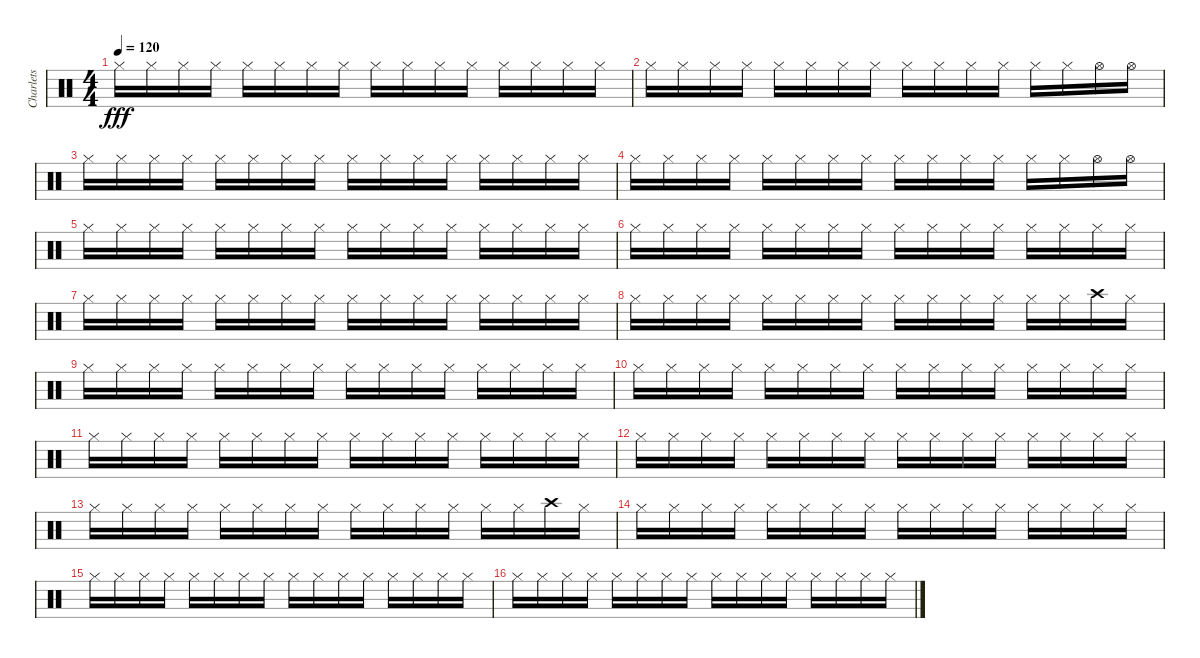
\track ("Charlets" "Charlets") {instrument percussion}
\staff {score}
\articulation defaults
\ts (4 4)
\tempo 120
\clef neutral
\ks c "Hi-Hat (closed)".16{dy fff} "Hi-Hat (closed)".16 "Hi-Hat (closed)".16 "Hi-Hat (closed)".16 "Hi-Hat (closed)".16 "Hi-Hat (closed)".16 "Hi-Hat (closed)".16 "Hi-Hat (closed)".16 "Hi-Hat (closed)".16 "Hi-Hat (closed)".16 "Hi-Hat (closed)".16 "Hi-Hat (closed)".16 "Hi-Hat (closed)".16 "Hi-Hat (closed)".16 "Hi-Hat (closed)".16 "Hi-Hat (closed)".16
|
"Hi-Hat (closed)".16 "Hi-Hat (closed)".16 "Hi-Hat (closed)".16 "Hi-Hat (closed)".16 "Hi-Hat (closed)".16 "Hi-Hat (closed)".16 "Hi-Hat (closed)".16 "Hi-Hat (closed)".16 "Hi-Hat (closed)".16 "Hi-Hat (closed)".16 "Hi-Hat (closed)".16 "Hi-Hat (closed)".16 "Hi-Hat (closed)".16 "Hi-Hat (closed)".16 "Hi-Hat (open)".16 "Hi-Hat (open)".16 |
"Hi-Hat (closed)".16 "Hi-Hat (closed)".16 "Hi-Hat (closed)".16 "Hi-Hat (closed)".16 "Hi-Hat (closed)".16 "Hi-Hat (closed)".16 "Hi-Hat (closed)".16 "Hi-Hat (closed)".16 "Hi-Hat (closed)".16 "Hi-Hat (closed)".16 "Hi-Hat (closed)".16 "Hi-Hat (closed)".16 "Hi-Hat (closed)".16 "Hi-Hat (closed)".16 "Hi-Hat (closed)".16 "Hi-Hat (closed)".16 |
"Hi-Hat (closed)".16 "Hi-Hat (closed)".16 "Hi-Hat (closed)".16 "Hi-Hat (closed)".16 "Hi-Hat (closed)".16 "Hi-Hat (closed)".16 "Hi-Hat (closed)".16 "Hi-Hat (closed)".16 "Hi-Hat (closed)".16 "Hi-Hat (closed)".16 "Hi-Hat (closed)".16 "Hi-Hat (closed)".16 "Hi-Hat (closed)".16 "Hi-Hat (closed)".16 "Hi-Hat (open)".16 "Hi-Hat (open)".16 |
"Hi-Hat (closed)".16 "Hi-Hat (closed)".16 "Hi-Hat (closed)".16 "Hi-Hat (closed)".16 "Hi-Hat (closed)".16 "Hi-Hat (closed)".16 "Hi-Hat (closed)".16 "Hi-Hat (closed)".16 "Hi-Hat (closed)".16 "Hi-Hat (closed)".16 "Hi-Hat (closed)".16 "Hi-Hat (closed)".16 "Hi-Hat (closed)".16 "Hi-Hat (closed)".16 "Hi-Hat (closed)".16 "Hi-Hat (closed)".16 |
"Hi-Hat (closed)".16 "Hi-Hat (closed)".16 "Hi-Hat (closed)".16 "Hi-Hat (closed)".16 "Hi-Hat (closed)".16 "Hi-Hat (closed)".16 "Hi-Hat (closed)".16 "Hi-Hat (closed)".16 "Hi-Hat (closed)".16 "Hi-Hat (closed)".16 "Hi-Hat (closed)".16 "Hi-Hat (closed)".16 "Hi-Hat (closed)".16 "Hi-Hat (closed)".16 "Hi-Hat (closed)".16 "Hi-Hat (closed)".16 |
"Hi-Hat (closed)".16 "Hi-Hat (closed)".16 "Hi-Hat (closed)".16 "Hi-Hat (closed)".16 "Hi-Hat (closed)".16 "Hi-Hat (closed)".16 "Hi-Hat (closed)".16 "Hi-Hat (closed)".16 "Hi-Hat (closed)".16 "Hi-Hat (closed)".16 "Hi-Hat (closed)".16 "Hi-Hat (closed)".16 "Hi-Hat (closed)".16 "Hi-Hat (closed)".16 "Hi-Hat (closed)".16 "Hi-Hat (closed)".16 |
"Hi-Hat (closed)".16 "Hi-Hat (closed)".16 "Hi-Hat (closed)".16 "Hi-Hat (closed)".16 "Hi-Hat (closed)".16 "Hi-Hat (closed)".16 "Hi-Hat (closed)".16 "Hi-Hat (closed)".16 "Hi-Hat (closed)".16 "Hi-Hat (closed)".16 "Hi-Hat (closed)".16 "Hi-Hat (closed)".16 "Hi-Hat (closed)".16 "Hi-Hat (closed)".16 "Crash high (hit)".16 "Hi-Hat (closed)".16 |
"Hi-Hat (closed)".16 "Hi-Hat (closed)".16 "Hi-Hat (closed)".16 "Hi-Hat (closed)".16 "Hi-Hat (closed)".16 "Hi-Hat (closed)".16 "Hi-Hat (closed)".16 "Hi-Hat (closed)".16 "Hi-Hat (closed)".16 "Hi-Hat (closed)".16 "Hi-Hat (closed)".16 "Hi-Hat (closed)".16 "Hi-Hat (closed)".16 "Hi-Hat (closed)".16 "Hi-Hat (closed)".16 "Hi-Hat (closed)".16 |
"Hi-Hat (closed)".16 "Hi-Hat (closed)".16 "Hi-Hat (closed)".16 "Hi-Hat (closed)".16 "Hi-Hat (closed)".16 "Hi-Hat (closed)".16 "Hi-Hat (closed)".16 "Hi-Hat (closed)".16 "Hi-Hat (closed)".16 "Hi-Hat (closed)".16 "Hi-Hat (closed)".16 "Hi-Hat (closed)".16 "Hi-Hat (closed)".16 "Hi-Hat (closed)".16 "Hi-Hat (closed)".16 "Hi-Hat (closed)".16 |
"Hi-Hat (closed)".16 "Hi-Hat (closed)".16 "Hi-Hat (closed)".16 "Hi-Hat (closed)".16 "Hi-Hat (closed)".16 "Hi-Hat (closed)".16 "Hi-Hat (closed)".16 "Hi-Hat (closed)".16 "Hi-Hat (closed)".16 "Hi-Hat (closed)".16 "Hi-Hat (closed)".16 "Hi-Hat (closed)".16 "Hi-Hat (closed)".16 "Hi-Hat (closed)".16 "Hi-Hat (closed)".16 "Hi-Hat (closed)".16 |
"Hi-Hat (closed)".16 "Hi-Hat (closed)".16 "Hi-Hat (closed)".16 "Hi-Hat (closed)".16 "Hi-Hat (closed)".16 "Hi-Hat (closed)".16 "Hi-Hat (closed)".16 "Hi-Hat (closed)".16 "Hi-Hat (closed)".16 "Hi-Hat (closed)".16 "Hi-Hat (closed)".16 "Hi-Hat (closed)".16 "Hi-Hat (closed)".16 "Hi-Hat (closed)".16 "Hi-Hat (closed)".16 "Hi-Hat (closed)".16 |
"Hi-Hat (closed)".16 "Hi-Hat (closed)".16 "Hi-Hat (closed)".16 "Hi-Hat (closed)".16 "Hi-Hat (closed)".16 "Hi-Hat (closed)".16 "Hi-Hat (closed)".16 "Hi-Hat (closed)".16 "Hi-Hat (closed)".16 "Hi-Hat (closed)".16 "Hi-Hat (closed)".16 "Hi-Hat (closed)".16 "Hi-Hat (closed)".16 "Hi-Hat (closed)".16 "Crash high (hit)".16 "Hi-Hat (closed)".16 |
"Hi-Hat (closed)".16 "Hi-Hat (closed)".16 "Hi-Hat (closed)".16 "Hi-Hat (closed)".16 "Hi-Hat (closed)".16 "Hi-Hat (closed)".16 "Hi-Hat (closed)".16 "Hi-Hat (closed)".16 "Hi-Hat (closed)".16 "Hi-Hat (closed)".16 "Hi-Hat (closed)".16 "Hi-Hat (closed)".16 "Hi-Hat (closed)".16 "Hi-Hat (closed)".16 "Hi-Hat (closed)".16 "Hi-Hat (closed)".16 |
"Hi-Hat (closed)".16 "Hi-Hat (closed)".16 "Hi-Hat (closed)".16 "Hi-Hat (closed)".16 "Hi-Hat (closed)".16 "Hi-Hat (closed)".16 "Hi-Hat (closed)".16 "Hi-Hat (closed)".16 "Hi-Hat (closed)".16 "Hi-Hat (closed)".16 "Hi-Hat (closed)".16 "Hi-Hat (closed)".16 "Hi-Hat (closed)".16 "Hi-Hat (closed)".16 "Hi-Hat (closed)".16 "Hi-Hat (closed)".16 |
"Hi-Hat (closed)".16 "Hi-Hat (closed)".16 "Hi-Hat (closed)".16 "Hi-Hat (closed)".16 "Hi-Hat (closed)".16 "Hi-Hat (closed)".16 "Hi-Hat (closed)".16 "Hi-Hat (closed)".16 "Hi-Hat (closed)".16 "Hi-Hat (closed)".16 "Hi-Hat (closed)".16 "Hi-Hat (closed)".16 "Hi-Hat (closed)".16 "Hi-Hat (closed)".16 "Hi-Hat (closed)".16 "Hi-Hat (closed)".16
